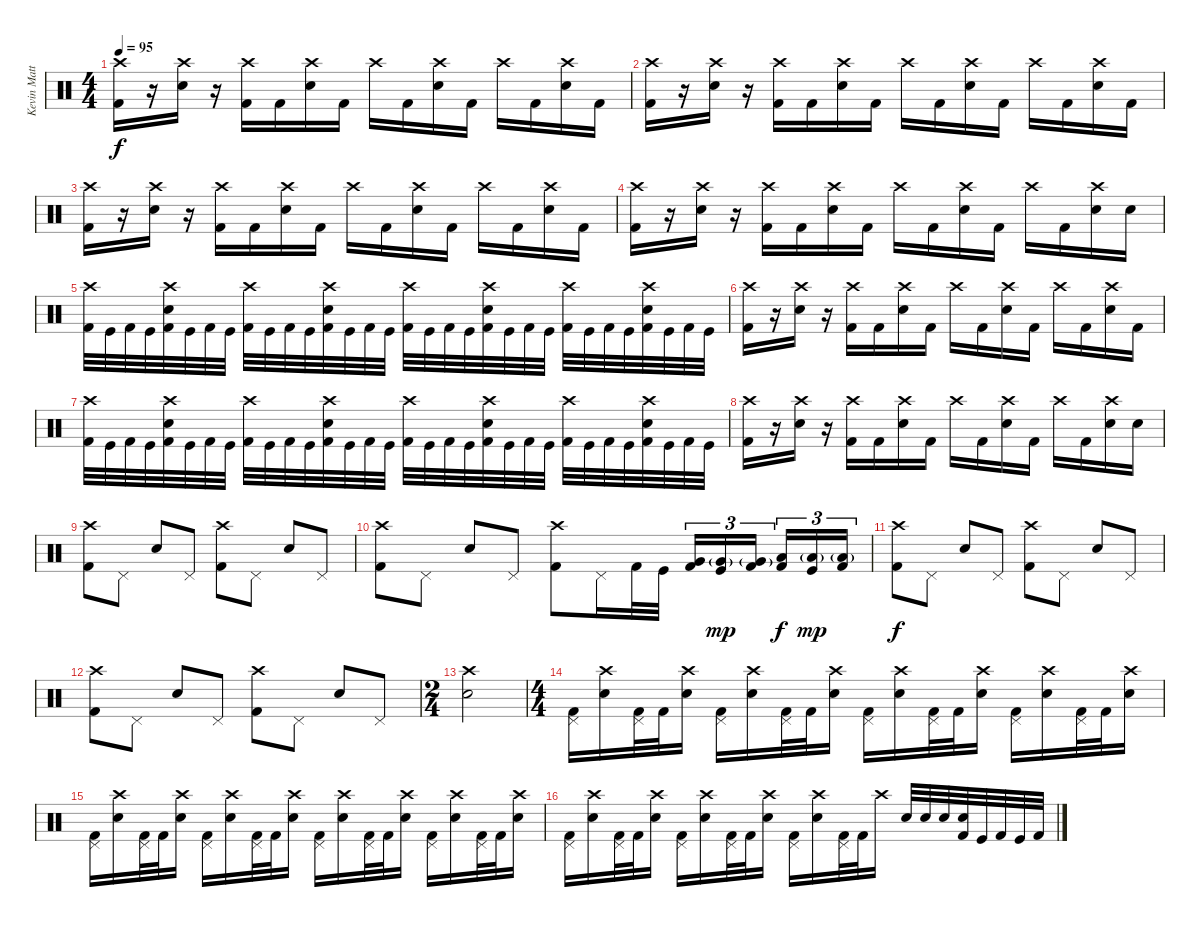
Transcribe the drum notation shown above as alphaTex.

\track ("Kevin Matthews (Drums)" "Kevin Matt") {instrument percussion}
\staff {score}
\articulation defaults
\ts (4 4)
\tempo 95
\clef neutral
\ks c
("Crash high (hit)" "Kick (hit) 2").16{dy f} r.16 ("Crash high (hit)" "Electric Snare (hit)").16 r.16 ("Crash high (hit)" "Kick (hit) 2").16 "Kick (hit) 2".16 ("Crash high (hit)" "Electric Snare (hit)").16 "Kick (hit) 2".16 "Crash high (hit)".16 "Kick (hit) 2".16 ("Crash high (hit)" "Electric Snare (hit)").16 "Kick (hit) 2".16 "Crash high (hit)".16 "Kick (hit) 2".16 ("Crash high (hit)" "Electric Snare (hit)").16 "Kick (hit) 2".16 |
("Crash high (hit)" "Kick (hit) 2").16 r.16 ("Crash high (hit)" "Electric Snare (hit)").16 r.16 ("Crash high (hit)" "Kick (hit) 2").16 "Kick (hit) 2".16 ("Crash high (hit)" "Electric Snare (hit)").16 "Kick (hit) 2".16 "Crash high (hit)".16 "Kick (hit) 2".16 ("Crash high (hit)" "Electric Snare (hit)").16 "Kick (hit) 2".16 "Crash high (hit)".16 "Kick (hit) 2".16 ("Crash high (hit)" "Electric Snare (hit)").16 "Kick (hit) 2".16 |
("Crash high (hit)" "Kick (hit) 2").16 r.16 ("Crash high (hit)" "Electric Snare (hit)").16 r.16 ("Crash high (hit)" "Kick (hit) 2").16 "Kick (hit) 2".16 ("Crash high (hit)" "Electric Snare (hit)").16 "Kick (hit) 2".16 "Crash high (hit)".16 "Kick (hit) 2".16 ("Crash high (hit)" "Electric Snare (hit)").16 "Kick (hit) 2".16 "Crash high (hit)".16 "Kick (hit) 2".16 ("Crash high (hit)" "Electric Snare (hit)").16 "Kick (hit) 2".16 |
("Crash high (hit)" "Kick (hit) 2").16 r.16 ("Crash high (hit)" "Electric Snare (hit)").16 r.16 ("Crash high (hit)" "Kick (hit) 2").16 "Kick (hit) 2".16 ("Crash high (hit)" "Electric Snare (hit)").16 "Kick (hit) 2".16 "Crash high (hit)".16 "Kick (hit) 2".16 ("Crash high (hit)" "Electric Snare (hit)").16 "Kick (hit) 2".16 "Crash high (hit)".16 "Kick (hit) 2".16 ("Crash high (hit)" "Electric Snare (hit)").16 "Electric Snare (hit)".16 |
("Crash high (hit)" "Kick (hit) 2").32 "Kick (hit)".32 "Kick (hit) 2".32 "Kick (hit)".32 ("Crash high (hit)" "Electric Snare (hit)" "Kick (hit) 2").32 "Kick (hit)".32 "Kick (hit) 2".32 "Kick (hit)".32 ("Crash high (hit)" "Kick (hit) 2").32 "Kick (hit)".32 "Kick (hit) 2".32 "Kick (hit)".32 ("Crash high (hit)" "Electric Snare (hit)" "Kick (hit) 2").32 "Kick (hit)".32 "Kick (hit) 2".32 "Kick (hit)".32 ("Crash high (hit)" "Kick (hit) 2").32 "Kick (hit)".32 "Kick (hit) 2".32 "Kick (hit)".32 ("Crash high (hit)" "Electric Snare (hit)" "Kick (hit) 2").32 "Kick (hit)".32 "Kick (hit) 2".32 "Kick (hit)".32 ("Crash high (hit)" "Kick (hit) 2").32 "Kick (hit)".32 "Kick (hit) 2".32 "Kick (hit)".32 ("Crash high (hit)" "Electric Snare (hit)" "Kick (hit) 2").32 "Kick (hit)".32 "Kick (hit) 2".32 "Kick (hit)".32 |
("Crash high (hit)" "Kick (hit) 2").16 r.16 ("Crash high (hit)" "Electric Snare (hit)").16 r.16 ("Crash high (hit)" "Kick (hit) 2").16 "Kick (hit) 2".16 ("Crash high (hit)" "Electric Snare (hit)").16 "Kick (hit) 2".16 "Crash high (hit)".16 "Kick (hit) 2".16 ("Crash high (hit)" "Electric Snare (hit)").16 "Kick (hit) 2".16 "Crash high (hit)".16 "Kick (hit) 2".16 ("Crash high (hit)" "Electric Snare (hit)").16 "Kick (hit) 2".16 |
("Crash high (hit)" "Kick (hit) 2").32 "Kick (hit)".32 "Kick (hit) 2".32 "Kick (hit)".32 ("Crash high (hit)" "Electric Snare (hit)" "Kick (hit) 2").32 "Kick (hit)".32 "Kick (hit) 2".32 "Kick (hit)".32 ("Crash high (hit)" "Kick (hit) 2").32 "Kick (hit)".32 "Kick (hit) 2".32 "Kick (hit)".32 ("Crash high (hit)" "Electric Snare (hit)" "Kick (hit) 2").32 "Kick (hit)".32 "Kick (hit) 2".32 "Kick (hit)".32 ("Crash high (hit)" "Kick (hit) 2").32 "Kick (hit)".32 "Kick (hit) 2".32 "Kick (hit)".32 ("Crash high (hit)" "Electric Snare (hit)" "Kick (hit) 2").32 "Kick (hit)".32 "Kick (hit) 2".32 "Kick (hit)".32 ("Crash high (hit)" "Kick (hit) 2").32 "Kick (hit)".32 "Kick (hit) 2".32 "Kick (hit)".32 ("Crash high (hit)" "Electric Snare (hit)" "Kick (hit) 2").32 "Kick (hit)".32 "Kick (hit) 2".32 "Kick (hit)".32 |
("Crash high (hit)" "Kick (hit) 2").16 r.16 ("Crash high (hit)" "Electric Snare (hit)").16 r.16 ("Crash high (hit)" "Kick (hit) 2").16 "Kick (hit) 2".16 ("Crash high (hit)" "Electric Snare (hit)").16 "Kick (hit) 2".16 "Crash high (hit)".16 "Kick (hit) 2".16 ("Crash high (hit)" "Electric Snare (hit)").16 "Kick (hit) 2".16 "Crash high (hit)".16 "Kick (hit) 2".16 ("Crash high (hit)" "Electric Snare (hit)").16 "Electric Snare (hit)".16 |
("Crash high (hit)" "Kick (hit) 2").8 "Pedal Hi-Hat (hit)".8 "Electric Snare (hit)".8 "Pedal Hi-Hat (hit)".8 ("Crash high (hit)" "Kick (hit) 2").8 "Pedal Hi-Hat (hit)".8 "Electric Snare (hit)".8 "Pedal Hi-Hat (hit)".8 |
("Crash high (hit)" "Kick (hit) 2").8 "Pedal Hi-Hat (hit)".8 "Electric Snare (hit)".8 "Pedal Hi-Hat (hit)".8 ("Crash high (hit)" "Kick (hit) 2").8 "Pedal Hi-Hat (hit)".16 "Kick (hit) 2".32 "Kick (hit)".32 ("Very Low Tom (hit)" "Kick (hit) 2").16{tu (3 2)} ("Very Low Tom (hit)"{g} "Kick (hit)").16{tu (3 2) dy mp} ("Very Low Tom (hit)"{g} "Kick (hit) 2").16{tu (3 2) beam splitsecondary} ("Low Floor Tom (hit)" "Kick (hit) 2").16{tu (3 2) dy f} ("Low Floor Tom (hit)"{g} "Kick (hit)").16{tu (3 2) dy mp} ("Low Floor Tom (hit)"{g} "Kick (hit) 2").16{tu (3 2)} |
("Crash high (hit)" "Kick (hit) 2").8{dy f} "Pedal Hi-Hat (hit)".8 "Electric Snare (hit)".8 "Pedal Hi-Hat (hit)".8 ("Crash high (hit)" "Kick (hit) 2").8 "Pedal Hi-Hat (hit)".8 "Electric Snare (hit)".8 "Pedal Hi-Hat (hit)".8 |
("Crash high (hit)" "Kick (hit) 2").8 "Pedal Hi-Hat (hit)".8 "Electric Snare (hit)".8 "Pedal Hi-Hat (hit)".8 ("Crash high (hit)" "Kick (hit) 2").8 "Pedal Hi-Hat (hit)".8 "Electric Snare (hit)".8 "Pedal Hi-Hat (hit)".8 |
\ts (2 4)
("Crash high (hit)" "Electric Snare (hit)").2 |
\ts (4 4)
("Pedal Hi-Hat (hit)" "Kick (hit) 2").16 ("Crash high (hit)" "Electric Snare (hit)").16 ("Pedal Hi-Hat (hit)" "Kick (hit) 2").32 "Kick (hit) 2".32 ("Crash high (hit)" "Electric Snare (hit)").16 ("Pedal Hi-Hat (hit)" "Kick (hit) 2").16 ("Crash high (hit)" "Electric Snare (hit)").16 ("Pedal Hi-Hat (hit)" "Kick (hit) 2").32 "Kick (hit) 2".32 ("Crash high (hit)" "Electric Snare (hit)").16 ("Pedal Hi-Hat (hit)" "Kick (hit) 2").16 ("Crash high (hit)" "Electric Snare (hit)").16 ("Pedal Hi-Hat (hit)" "Kick (hit) 2").32 "Kick (hit) 2".32 ("Crash high (hit)" "Electric Snare (hit)").16 ("Pedal Hi-Hat (hit)" "Kick (hit) 2").16 ("Crash high (hit)" "Electric Snare (hit)").16 ("Pedal Hi-Hat (hit)" "Kick (hit) 2").32 "Kick (hit) 2".32 ("Crash high (hit)" "Electric Snare (hit)").16 |
("Pedal Hi-Hat (hit)" "Kick (hit) 2").16 ("Crash high (hit)" "Electric Snare (hit)").16 ("Pedal Hi-Hat (hit)" "Kick (hit) 2").32 "Kick (hit) 2".32 ("Crash high (hit)" "Electric Snare (hit)").16 ("Pedal Hi-Hat (hit)" "Kick (hit) 2").16 ("Crash high (hit)" "Electric Snare (hit)").16 ("Pedal Hi-Hat (hit)" "Kick (hit) 2").32 "Kick (hit) 2".32 ("Crash high (hit)" "Electric Snare (hit)").16 ("Pedal Hi-Hat (hit)" "Kick (hit) 2").16 ("Crash high (hit)" "Electric Snare (hit)").16 ("Pedal Hi-Hat (hit)" "Kick (hit) 2").32 "Kick (hit) 2".32 ("Crash high (hit)" "Electric Snare (hit)").16 ("Pedal Hi-Hat (hit)" "Kick (hit) 2").16 ("Crash high (hit)" "Electric Snare (hit)").16 ("Pedal Hi-Hat (hit)" "Kick (hit) 2").32 "Kick (hit) 2".32 ("Crash high (hit)" "Electric Snare (hit)").16 |
("Pedal Hi-Hat (hit)" "Kick (hit) 2").16 ("Crash high (hit)" "Electric Snare (hit)").16 ("Pedal Hi-Hat (hit)" "Kick (hit) 2").32 "Kick (hit) 2".32 ("Crash high (hit)" "Electric Snare (hit)").16 ("Pedal Hi-Hat (hit)" "Kick (hit) 2").16 ("Crash high (hit)" "Electric Snare (hit)").16 ("Pedal Hi-Hat (hit)" "Kick (hit) 2").32 "Kick (hit) 2".32 ("Crash high (hit)" "Electric Snare (hit)").16 ("Pedal Hi-Hat (hit)" "Kick (hit) 2").16 ("Crash high (hit)" "Electric Snare (hit)").16 ("Pedal Hi-Hat (hit)" "Kick (hit) 2").32 "Kick (hit) 2".32 "Crash high (hit)".16 "Electric Snare (hit)".32 "Electric Snare (hit)".32 "Electric Snare (hit)".32 ("Electric Snare (hit)" "Kick (hit) 2").32 "Kick (hit)".32 "Kick (hit) 2".32 "Kick (hit)".32 "Kick (hit) 2".32
